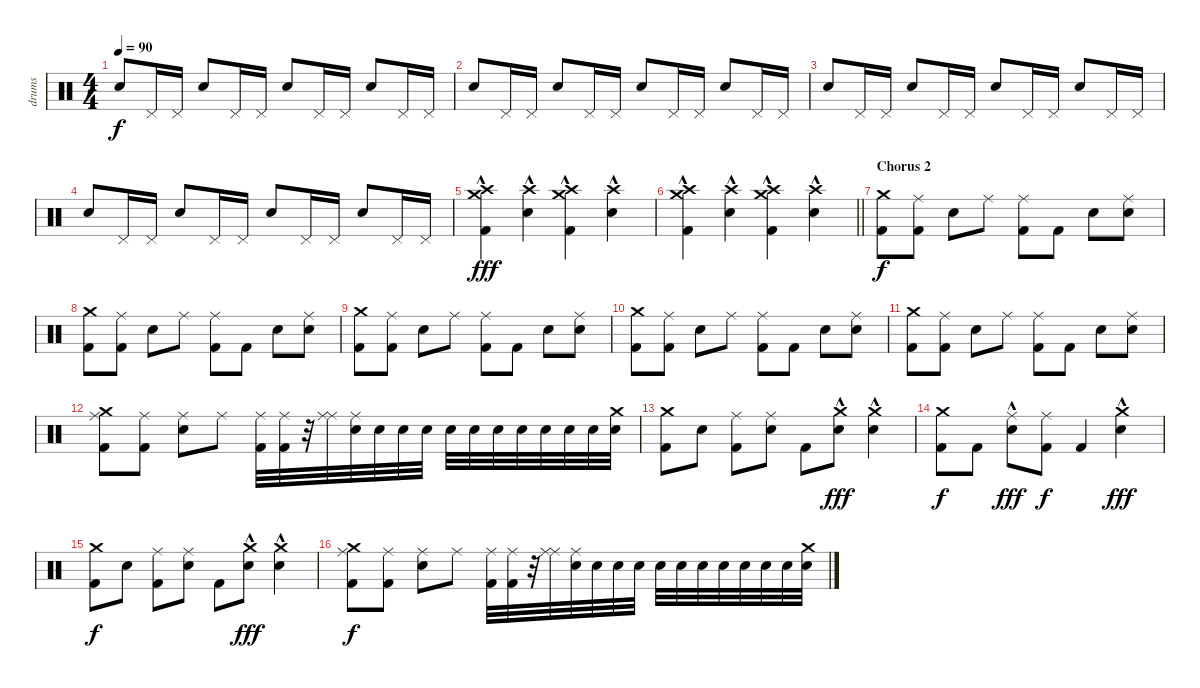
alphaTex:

\track ("drums" "drums") {instrument percussion}
\staff {score}
\articulation defaults
\ts (4 4)
\tempo 90
\clef neutral
\ks c "Electric Snare (hit)".8{dy f} "Pedal Hi-Hat (hit)".16 "Pedal Hi-Hat (hit)".16 "Electric Snare (hit)".8 "Pedal Hi-Hat (hit)".16 "Pedal Hi-Hat (hit)".16 "Electric Snare (hit)".8 "Pedal Hi-Hat (hit)".16 "Pedal Hi-Hat (hit)".16 "Electric Snare (hit)".8 "Pedal Hi-Hat (hit)".16 "Pedal Hi-Hat (hit)".16
|
"Electric Snare (hit)".8 "Pedal Hi-Hat (hit)".16 "Pedal Hi-Hat (hit)".16 "Electric Snare (hit)".8 "Pedal Hi-Hat (hit)".16 "Pedal Hi-Hat (hit)".16 "Electric Snare (hit)".8 "Pedal Hi-Hat (hit)".16 "Pedal Hi-Hat (hit)".16 "Electric Snare (hit)".8 "Pedal Hi-Hat (hit)".16 "Pedal Hi-Hat (hit)".16 |
"Electric Snare (hit)".8 "Pedal Hi-Hat (hit)".16 "Pedal Hi-Hat (hit)".16 "Electric Snare (hit)".8 "Pedal Hi-Hat (hit)".16 "Pedal Hi-Hat (hit)".16 "Electric Snare (hit)".8 "Pedal Hi-Hat (hit)".16 "Pedal Hi-Hat (hit)".16 "Electric Snare (hit)".8 "Pedal Hi-Hat (hit)".16 "Pedal Hi-Hat (hit)".16 |
"Electric Snare (hit)".8 "Pedal Hi-Hat (hit)".16 "Pedal Hi-Hat (hit)".16 "Electric Snare (hit)".8 "Pedal Hi-Hat (hit)".16 "Pedal Hi-Hat (hit)".16 "Electric Snare (hit)".8 "Pedal Hi-Hat (hit)".16 "Pedal Hi-Hat (hit)".16 "Electric Snare (hit)".8 "Pedal Hi-Hat (hit)".16 "Pedal Hi-Hat (hit)".16 |
("Kick (hit) 2" "Crash high (hit)"{hac} "Crash medium (hit)"{hac}).4{dy fff} ("Electric Snare (hit)"{hac} "Crash high (hit)").4 ("Kick (hit) 2" "Crash high (hit)"{hac} "Crash medium (hit)"{hac}).4 ("Electric Snare (hit)"{hac} "Crash high (hit)").4 |
\barLineRight lightlight
("Kick (hit) 2" "Crash high (hit)"{hac} "Crash medium (hit)"{hac}).4 ("Electric Snare (hit)"{hac} "Crash high (hit)").4 ("Kick (hit) 2" "Crash high (hit)"{hac} "Crash medium (hit)"{hac}).4 ("Electric Snare (hit)"{hac} "Crash high (hit)").4 |
\section ("" "Chorus 2")
("Crash medium (hit)" "Kick (hit) 2").8{dy f} ("Kick (hit) 2" "Ride (middle)").8 "Electric Snare (hit)".8 "Ride (middle)".8 ("Kick (hit) 2" "Ride (middle)").8 "Kick (hit) 2".8 "Electric Snare (hit)".8 ("Electric Snare (hit)" "Ride (middle)").8 |
("Crash medium (hit)" "Kick (hit) 2").8 ("Kick (hit) 2" "Ride (middle)").8 "Electric Snare (hit)".8 "Ride (middle)".8 ("Kick (hit) 2" "Ride (middle)").8 "Kick (hit) 2".8 "Electric Snare (hit)".8 ("Electric Snare (hit)" "Ride (middle)").8 |
("Crash medium (hit)" "Kick (hit) 2").8 ("Kick (hit) 2" "Ride (middle)").8 "Electric Snare (hit)".8 "Ride (middle)".8 ("Kick (hit) 2" "Ride (middle)").8 "Kick (hit) 2".8 "Electric Snare (hit)".8 ("Electric Snare (hit)" "Ride (middle)").8 |
("Crash medium (hit)" "Kick (hit) 2").8 ("Kick (hit) 2" "Ride (middle)").8 "Electric Snare (hit)".8 "Ride (middle)".8 ("Kick (hit) 2" "Ride (middle)").8 "Kick (hit) 2".8 "Electric Snare (hit)".8 ("Electric Snare (hit)" "Ride (middle)").8 |
("Crash medium (hit)" "Kick (hit) 2").8 ("Kick (hit) 2" "Ride (middle)").8 "Electric Snare (hit)".8 "Ride (middle)".8 ("Kick (hit) 2" "Ride (middle)").8 "Kick (hit) 2".8 "Electric Snare (hit)".8 ("Electric Snare (hit)" "Ride (middle)").8 |
("Crash medium (hit)" "Kick (hit) 2" "Ride (middle)").8 ("Kick (hit) 2" "Ride (middle)").8 ("Electric Snare (hit)" "Ride (middle)").8 "Ride (middle)".8 ("Kick (hit) 2" "Ride (middle)").32 ("Kick (hit) 2" "Ride (middle)").32 r.32 ("Ride (middle)" "Ride (middle)").32 ("Electric Snare (hit)" "Ride (middle)").32 "Electric Snare (hit)".32 "Electric Snare (hit)".32 "Electric Snare (hit)".32 "Electric Snare (hit)".32 "Electric Snare (hit)".32 "Electric Snare (hit)".32 "Electric Snare (hit)".32 "Electric Snare (hit)".32 "Electric Snare (hit)".32 "Electric Snare (hit)".32 ("Electric Snare (hit)" "Crash medium (hit)").32 |
("Kick (hit) 2" "Crash medium (hit)").8 "Electric Snare (hit)".8 ("Kick (hit) 2" "Ride (middle)").8 ("Electric Snare (hit)" "Ride (middle)").8 "Kick (hit) 2".8 ("Electric Snare (hit)"{hac} "Crash medium (hit)"{hac}).8{dy fff} ("Electric Snare (hit)"{hac} "Crash medium (hit)"{hac}).4 |
("Kick (hit) 2" "Crash medium (hit)").8{dy f} "Kick (hit) 2".8 ("Electric Snare (hit)"{hac} "Ride (middle)").8{dy fff} ("Kick (hit) 2" "Ride (middle)").8{dy f} "Kick (hit) 2".4 ("Electric Snare (hit)"{hac} "Crash medium (hit)"{hac}).4{dy fff} |
("Kick (hit) 2" "Crash medium (hit)").8{dy f} "Electric Snare (hit)".8 ("Kick (hit) 2" "Ride (middle)").8 ("Electric Snare (hit)" "Ride (middle)").8 "Kick (hit) 2".8 ("Electric Snare (hit)"{hac} "Crash medium (hit)"{hac}).8{dy fff} ("Electric Snare (hit)"{hac} "Crash medium (hit)"{hac}).4 |
("Crash medium (hit)" "Kick (hit) 2" "Ride (middle)").8{dy f} ("Kick (hit) 2" "Ride (middle)").8 ("Electric Snare (hit)" "Ride (middle)").8 "Ride (middle)".8 ("Kick (hit) 2" "Ride (middle)").32 ("Kick (hit) 2" "Ride (middle)").32 r.32 ("Ride (middle)" "Ride (middle)").32 ("Electric Snare (hit)" "Ride (middle)").32 "Electric Snare (hit)".32 "Electric Snare (hit)".32 "Electric Snare (hit)".32 "Electric Snare (hit)".32 "Electric Snare (hit)".32 "Electric Snare (hit)".32 "Electric Snare (hit)".32 "Electric Snare (hit)".32 "Electric Snare (hit)".32 "Electric Snare (hit)".32 ("Electric Snare (hit)" "Crash medium (hit)").32
